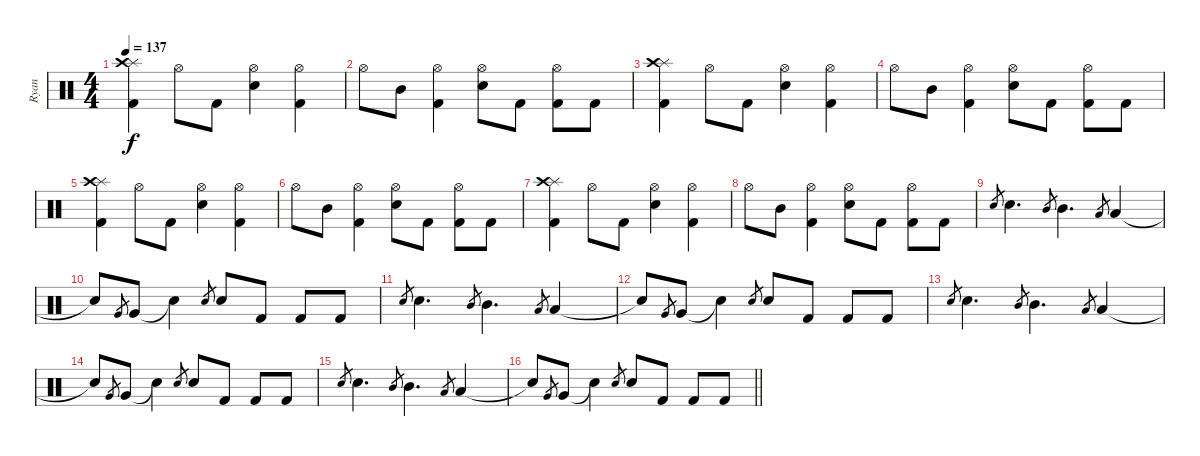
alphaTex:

\track ("Ryan" "Ryan") {instrument percussion}
\staff {score}
\articulation defaults
\ts (4 4)
\tempo 137
\clef neutral
\ks c
("Splash (hit)" "Crash high (hit)" "Kick (hit) 2").4{dy f} "Hi-Hat (open)".8 "Kick (hit) 2".8 ("Hi-Hat (open)" "Electric Snare (hit)").4 ("Hi-Hat (open)" "Kick (hit) 2").4 |
"Hi-Hat (open)".8 "Mid Tom (hit)".8 ("Hi-Hat (open)" "Kick (hit) 2").4 ("Hi-Hat (open)" "Electric Snare (hit)").8 "Kick (hit) 2".8 ("Hi-Hat (open)" "Kick (hit) 2").8 "Kick (hit) 2".8 |
("Splash (hit)" "Crash high (hit)" "Kick (hit) 2").4 "Hi-Hat (open)".8 "Kick (hit) 2".8 ("Hi-Hat (open)" "Electric Snare (hit)").4 ("Hi-Hat (open)" "Kick (hit) 2").4 |
"Hi-Hat (open)".8 "Mid Tom (hit)".8 ("Hi-Hat (open)" "Kick (hit) 2").4 ("Hi-Hat (open)" "Electric Snare (hit)").8 "Kick (hit) 2".8 ("Hi-Hat (open)" "Kick (hit) 2").8 "Kick (hit) 2".8 |
("Splash (hit)" "Crash high (hit)" "Kick (hit) 2").4 "Hi-Hat (open)".8 "Kick (hit) 2".8 ("Hi-Hat (open)" "Electric Snare (hit)").4 ("Hi-Hat (open)" "Kick (hit) 2").4 |
"Hi-Hat (open)".8 "Mid Tom (hit)".8 ("Hi-Hat (open)" "Kick (hit) 2").4 ("Hi-Hat (open)" "Electric Snare (hit)").8 "Kick (hit) 2".8 ("Hi-Hat (open)" "Kick (hit) 2").8 "Kick (hit) 2".8 |
("Splash (hit)" "Crash high (hit)" "Kick (hit) 2").4 "Hi-Hat (open)".8 "Kick (hit) 2".8 ("Hi-Hat (open)" "Electric Snare (hit)").4 ("Hi-Hat (open)" "Kick (hit) 2").4 |
"Hi-Hat (open)".8 "Mid Tom (hit)".8 ("Hi-Hat (open)" "Kick (hit) 2").4 ("Hi-Hat (open)" "Electric Snare (hit)").8 "Kick (hit) 2".8 ("Hi-Hat (open)" "Kick (hit) 2").8 "Kick (hit) 2".8 |
"Electric Snare (hit)".8{gr} "Electric Snare (hit)".4{d} "Mid Tom (hit)".8{gr} "Mid Tom (hit)".4{d} "Low Tom (hit)".8{gr} "Low Tom (hit)".4 |
"Snare (hit)"{t}.8 "Very Low Tom (hit)".8{gr} "Very Low Tom (hit)".8 "Snare (hit)"{t}.4 "Electric Snare (hit)".8{gr} "Electric Snare (hit)".8 "Kick (hit) 2".8 "Kick (hit) 2".8 "Kick (hit) 2".8 |
"Electric Snare (hit)".8{gr} "Electric Snare (hit)".4{d} "Mid Tom (hit)".8{gr} "Mid Tom (hit)".4{d} "Low Tom (hit)".8{gr} "Low Tom (hit)".4 |
"Snare (hit)"{t}.8 "Very Low Tom (hit)".8{gr} "Very Low Tom (hit)".8 "Snare (hit)"{t}.4 "Electric Snare (hit)".8{gr} "Electric Snare (hit)".8 "Kick (hit) 2".8 "Kick (hit) 2".8 "Kick (hit) 2".8 |
"Electric Snare (hit)".8{gr} "Electric Snare (hit)".4{d} "Mid Tom (hit)".8{gr} "Mid Tom (hit)".4{d} "Low Tom (hit)".8{gr} "Low Tom (hit)".4 |
"Snare (hit)"{t}.8 "Very Low Tom (hit)".8{gr} "Very Low Tom (hit)".8 "Snare (hit)"{t}.4 "Electric Snare (hit)".8{gr} "Electric Snare (hit)".8 "Kick (hit) 2".8 "Kick (hit) 2".8 "Kick (hit) 2".8 |
"Electric Snare (hit)".8{gr} "Electric Snare (hit)".4{d} "Mid Tom (hit)".8{gr} "Mid Tom (hit)".4{d} "Low Tom (hit)".8{gr} "Low Tom (hit)".4 |
\barLineRight lightlight "Snare (hit)"{t}.8 "Very Low Tom (hit)".8{gr} "Very Low Tom (hit)".8 "Snare (hit)"{t}.4 "Electric Snare (hit)".8{gr} "Electric Snare (hit)".8 "Kick (hit) 2".8 "Kick (hit) 2".8 "Kick (hit) 2".8
